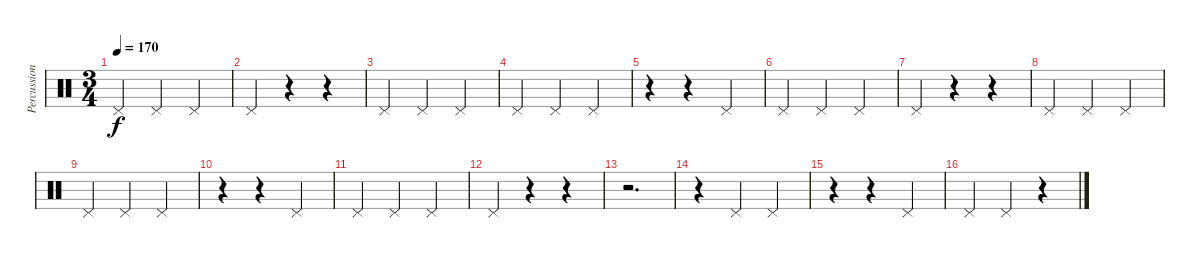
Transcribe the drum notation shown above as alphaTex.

\track ("Percussion" "Percussion") {instrument percussion}
\staff {score}
\articulation defaults
\ts (3 4)
\tempo 170
\clef neutral
\ks c "Pedal Hi-Hat (hit)".4{dy f} "Pedal Hi-Hat (hit)".4 "Pedal Hi-Hat (hit)".4
|
"Pedal Hi-Hat (hit)".4 r.4 r.4 |
"Pedal Hi-Hat (hit)".4 "Pedal Hi-Hat (hit)".4 "Pedal Hi-Hat (hit)".4 |
"Pedal Hi-Hat (hit)".4 "Pedal Hi-Hat (hit)".4 "Pedal Hi-Hat (hit)".4 |
r.4 r.4 "Pedal Hi-Hat (hit)".4 |
"Pedal Hi-Hat (hit)".4 "Pedal Hi-Hat (hit)".4 "Pedal Hi-Hat (hit)".4 |
"Pedal Hi-Hat (hit)".4 r.4 r.4 |
"Pedal Hi-Hat (hit)".4 "Pedal Hi-Hat (hit)".4 "Pedal Hi-Hat (hit)".4 |
"Pedal Hi-Hat (hit)".4 "Pedal Hi-Hat (hit)".4 "Pedal Hi-Hat (hit)".4 |
r.4 r.4 "Pedal Hi-Hat (hit)".4 |
"Pedal Hi-Hat (hit)".4 "Pedal Hi-Hat (hit)".4 "Pedal Hi-Hat (hit)".4 |
"Pedal Hi-Hat (hit)".4 r.4 r.4 |
r.2{d} |
r.4 "Pedal Hi-Hat (hit)".4 "Pedal Hi-Hat (hit)".4 |
r.4 r.4 "Pedal Hi-Hat (hit)".4 |
"Pedal Hi-Hat (hit)".4 "Pedal Hi-Hat (hit)".4 r.4
